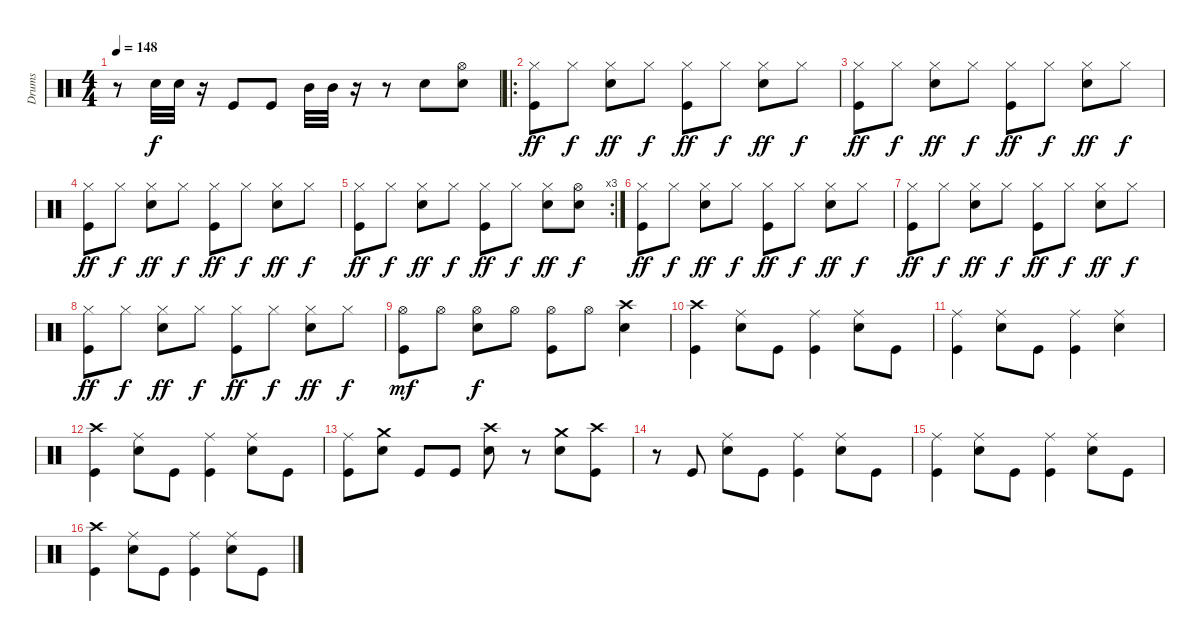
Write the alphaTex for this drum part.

\track ("Drums" "Drums") {instrument percussion}
\staff {score}
\articulation defaults
\ts (4 4)
\tempo 148
\clef neutral
\ks c
r.8{dy f} "Snare (hit) 2".32 "Snare (hit) 2".32 r.16 "Kick (hit)".8 "Kick (hit)".8 "Mid Tom (hit)".32 "Mid Tom (hit)".32 r.16 r.8 "Snare (hit) 2".8 ("Hi-Hat (open)" "Snare (hit) 2").8 |
\ro
("Hi-Hat (closed)" "Kick (hit)").8{dy ff} "Hi-Hat (closed)".8{dy f} ("Hi-Hat (closed)" "Snare (hit) 2").8{dy ff} "Hi-Hat (closed)".8{dy f} ("Hi-Hat (closed)" "Kick (hit)").8{dy ff} "Hi-Hat (closed)".8{dy f} ("Hi-Hat (closed)" "Snare (hit) 2").8{dy ff} "Hi-Hat (closed)".8{dy f} |
("Hi-Hat (closed)" "Kick (hit)").8{dy ff} "Hi-Hat (closed)".8{dy f} ("Hi-Hat (closed)" "Snare (hit) 2").8{dy ff} "Hi-Hat (closed)".8{dy f} ("Hi-Hat (closed)" "Kick (hit)").8{dy ff} "Hi-Hat (closed)".8{dy f} ("Hi-Hat (closed)" "Snare (hit) 2").8{dy ff} "Hi-Hat (closed)".8{dy f} |
("Hi-Hat (closed)" "Kick (hit)").8{dy ff} "Hi-Hat (closed)".8{dy f} ("Hi-Hat (closed)" "Snare (hit) 2").8{dy ff} "Hi-Hat (closed)".8{dy f} ("Hi-Hat (closed)" "Kick (hit)").8{dy ff} "Hi-Hat (closed)".8{dy f} ("Hi-Hat (closed)" "Snare (hit) 2").8{dy ff} "Hi-Hat (closed)".8{dy f} |
\rc 3
("Hi-Hat (closed)" "Kick (hit)").8{dy ff} "Hi-Hat (closed)".8{dy f} ("Hi-Hat (closed)" "Snare (hit) 2").8{dy ff} "Hi-Hat (closed)".8{dy f} ("Hi-Hat (closed)" "Kick (hit)").8{dy ff} "Hi-Hat (closed)".8{dy f} ("Hi-Hat (closed)" "Snare (hit) 2").8{dy ff} ("Hi-Hat (open)" "Snare (hit) 2").8{dy f} |
("Hi-Hat (closed)" "Kick (hit)").8{dy ff} "Hi-Hat (closed)".8{dy f} ("Hi-Hat (closed)" "Snare (hit) 2").8{dy ff} "Hi-Hat (closed)".8{dy f} ("Hi-Hat (closed)" "Kick (hit)").8{dy ff} "Hi-Hat (closed)".8{dy f} ("Hi-Hat (closed)" "Snare (hit) 2").8{dy ff} "Hi-Hat (closed)".8{dy f} |
("Hi-Hat (closed)" "Kick (hit)").8{dy ff} "Hi-Hat (closed)".8{dy f} ("Hi-Hat (closed)" "Snare (hit) 2").8{dy ff} "Hi-Hat (closed)".8{dy f} ("Hi-Hat (closed)" "Kick (hit)").8{dy ff} "Hi-Hat (closed)".8{dy f} ("Hi-Hat (closed)" "Snare (hit) 2").8{dy ff} "Hi-Hat (closed)".8{dy f} |
("Hi-Hat (closed)" "Kick (hit)").8{dy ff} "Hi-Hat (closed)".8{dy f} ("Hi-Hat (closed)" "Snare (hit) 2").8{dy ff} "Hi-Hat (closed)".8{dy f} ("Hi-Hat (closed)" "Kick (hit)").8{dy ff} "Hi-Hat (closed)".8{dy f} ("Hi-Hat (closed)" "Snare (hit) 2").8{dy ff} "Hi-Hat (closed)".8{dy f} |
("Hi-Hat (open)" "Kick (hit)").8{dy mf} "Hi-Hat (open)".8 ("Hi-Hat (open)" "Snare (hit) 2").8{dy f} "Hi-Hat (open)".8 ("Hi-Hat (open)" "Kick (hit)").8 "Hi-Hat (open)".8 ("Crash high (hit)" "Snare (hit) 2").4 |
("Crash high (hit)" "Kick (hit)").4 ("Ride (middle)" "Snare (hit) 2").8 "Kick (hit)".8 ("Ride (middle)" "Kick (hit)").4 ("Ride (middle)" "Snare (hit) 2").8 "Kick (hit)".8 |
("Ride (middle)" "Kick (hit)").4 ("Ride (middle)" "Snare (hit) 2").8 "Kick (hit)".8 ("Ride (middle)" "Kick (hit)").4 ("Ride (middle)" "Snare (hit) 2").4 |
("Crash high (hit)" "Kick (hit)").4 ("Ride (middle)" "Snare (hit) 2").8 "Kick (hit)".8 ("Ride (middle)" "Kick (hit)").4 ("Ride (middle)" "Snare (hit) 2").8 "Kick (hit)".8 |
("Ride (middle)" "Kick (hit)").8 ("Crash medium (hit)" "Snare (hit) 2").8 "Kick (hit)".8 "Kick (hit)".8 ("Crash high (hit)" "Snare (hit) 2").8 r.8 ("Crash medium (hit)" "Snare (hit) 2").8 ("Crash high (hit)" "Kick (hit)").8 |
r.8 "Kick (hit)".8 ("Ride (middle)" "Snare (hit) 2").8 "Kick (hit)".8 ("Ride (middle)" "Kick (hit)").4 ("Ride (middle)" "Snare (hit) 2").8 "Kick (hit)".8 |
("Ride (middle)" "Kick (hit)").4 ("Ride (middle)" "Snare (hit) 2").8 "Kick (hit)".8 ("Ride (middle)" "Kick (hit)").4 ("Ride (middle)" "Snare (hit) 2").8 "Kick (hit)".8 |
("Crash high (hit)" "Kick (hit)").4 ("Ride (middle)" "Snare (hit) 2").8 "Kick (hit)".8 ("Ride (middle)" "Kick (hit)").4 ("Ride (middle)" "Snare (hit) 2").8 "Kick (hit)".8
